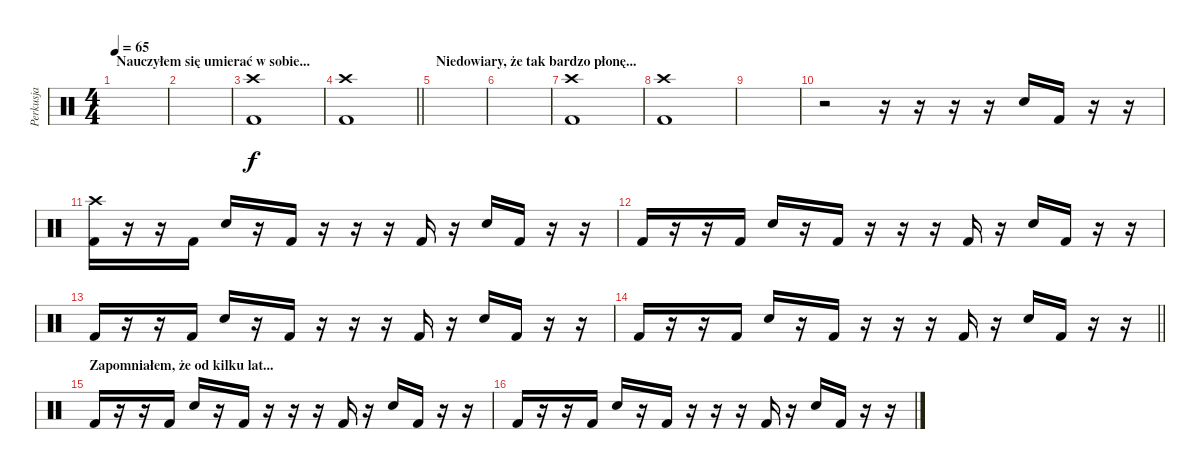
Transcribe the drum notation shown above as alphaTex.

\track ("Perkusja" "Perkusja") {instrument percussion}
\staff {score}
\articulation defaults
\ts (4 4)
\section ("" "Nauczyłem się umierać w sobie...")
\tempo 65
\clef neutral
\ks c
|
|
("Crash high (hit)" "Kick (hit) 2").1 |
\barLineRight lightlight
("Crash high (hit)" "Kick (hit) 2").1 |
\section ("" "Niedowiary, że tak bardzo płonę...")
|
|
("Crash high (hit)" "Kick (hit) 2").1 |
("Crash high (hit)" "Kick (hit) 2").1 |
|
r.2 r.16 r.16 r.16 r.16 "Snare (hit) 2".16 "Kick (hit) 2".16 r.16 r.16 |
("Crash high (hit)" "Kick (hit) 2").16 r.16 r.16 "Kick (hit) 2".16 "Snare (hit) 2".16 r.16 "Kick (hit) 2".16 r.16 r.16 r.16 "Kick (hit) 2".16 r.16 "Snare (hit) 2".16 "Kick (hit) 2".16 r.16 r.16 |
"Kick (hit) 2".16 r.16 r.16 "Kick (hit) 2".16 "Snare (hit) 2".16 r.16 "Kick (hit) 2".16 r.16 r.16 r.16 "Kick (hit) 2".16 r.16 "Snare (hit) 2".16 "Kick (hit) 2".16 r.16 r.16 |
"Kick (hit) 2".16 r.16 r.16 "Kick (hit) 2".16 "Snare (hit) 2".16 r.16 "Kick (hit) 2".16 r.16 r.16 r.16 "Kick (hit) 2".16 r.16 "Snare (hit) 2".16 "Kick (hit) 2".16 r.16 r.16 |
\barLineRight lightlight "Kick (hit) 2".16
r.16 r.16 "Kick (hit) 2".16 "Snare (hit) 2".16 r.16 "Kick (hit) 2".16 r.16 r.16 r.16 "Kick (hit) 2".16 r.16 "Snare (hit) 2".16 "Kick (hit) 2".16 r.16 r.16 |
\section ("" "Zapomniałem, że od kilku lat...")
"Kick (hit) 2".16 r.16 r.16 "Kick (hit) 2".16 "Snare (hit) 2".16 r.16 "Kick (hit) 2".16 r.16 r.16 r.16 "Kick (hit) 2".16 r.16 "Snare (hit) 2".16 "Kick (hit) 2".16 r.16 r.16 |
"Kick (hit) 2".16 r.16 r.16 "Kick (hit) 2".16 "Snare (hit) 2".16 r.16 "Kick (hit) 2".16 r.16 r.16 r.16 "Kick (hit) 2".16 r.16 "Snare (hit) 2".16 "Kick (hit) 2".16 r.16 r.16
